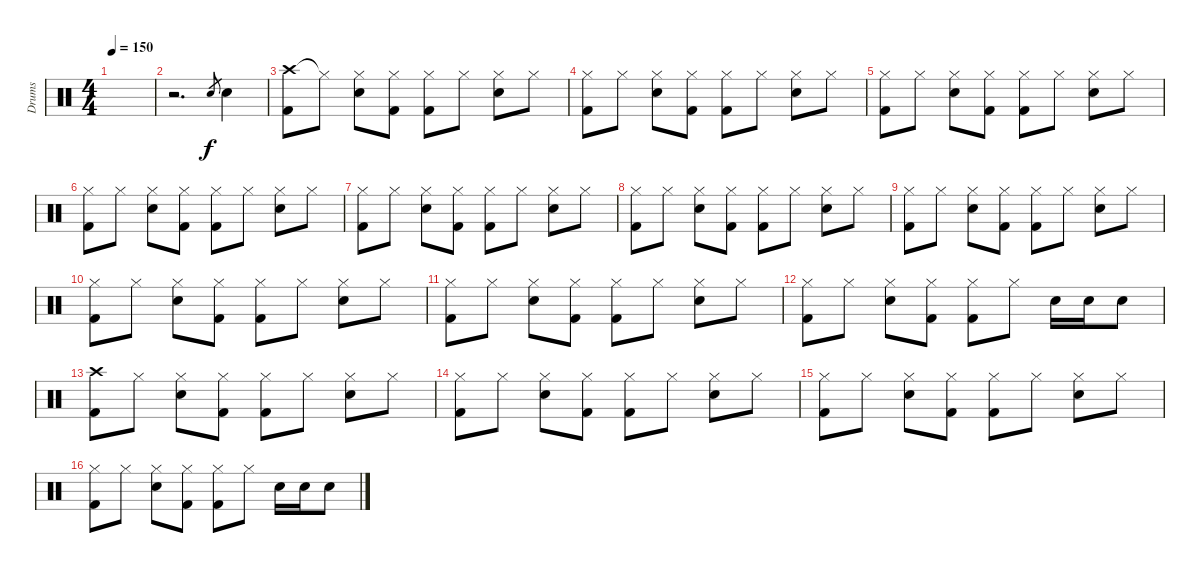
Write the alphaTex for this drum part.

\track ("Drums" "Drums") {instrument percussion}
\staff {score}
\articulation defaults
\ts (4 4)
\tempo 150
\clef neutral
\ks c
|
r.2{d} "Snare (hit) 2"{h}.8{gr} "Snare (hit) 2".4 |
("Crash high (hit)" "Kick (hit) 2").8 "Hi-Hat (closed)"{t}.8 ("Hi-Hat (closed)" "Snare (hit) 2").8 ("Hi-Hat (closed)" "Kick (hit) 2").8 ("Hi-Hat (closed)" "Kick (hit) 2").8 "Hi-Hat (closed)".8 ("Hi-Hat (closed)" "Snare (hit) 2").8 "Hi-Hat (closed)".8 |
("Hi-Hat (closed)" "Kick (hit) 2").8 "Hi-Hat (closed)".8 ("Hi-Hat (closed)" "Snare (hit) 2").8 ("Hi-Hat (closed)" "Kick (hit) 2").8 ("Hi-Hat (closed)" "Kick (hit) 2").8 "Hi-Hat (closed)".8 ("Hi-Hat (closed)" "Snare (hit) 2").8 "Hi-Hat (closed)".8 |
("Hi-Hat (closed)" "Kick (hit) 2").8 "Hi-Hat (closed)".8 ("Hi-Hat (closed)" "Snare (hit) 2").8 ("Hi-Hat (closed)" "Kick (hit) 2").8 ("Hi-Hat (closed)" "Kick (hit) 2").8 "Hi-Hat (closed)".8 ("Hi-Hat (closed)" "Snare (hit) 2").8 "Hi-Hat (closed)".8 |
("Hi-Hat (closed)" "Kick (hit) 2").8 "Hi-Hat (closed)".8 ("Hi-Hat (closed)" "Snare (hit) 2").8 ("Hi-Hat (closed)" "Kick (hit) 2").8 ("Hi-Hat (closed)" "Kick (hit) 2").8 "Hi-Hat (closed)".8 ("Hi-Hat (closed)" "Snare (hit) 2").8 "Hi-Hat (closed)".8 |
("Hi-Hat (closed)" "Kick (hit) 2").8 "Hi-Hat (closed)".8 ("Hi-Hat (closed)" "Snare (hit) 2").8 ("Hi-Hat (closed)" "Kick (hit) 2").8 ("Hi-Hat (closed)" "Kick (hit) 2").8 "Hi-Hat (closed)".8 ("Hi-Hat (closed)" "Snare (hit) 2").8 "Hi-Hat (closed)".8 |
("Hi-Hat (closed)" "Kick (hit) 2").8 "Hi-Hat (closed)".8 ("Hi-Hat (closed)" "Snare (hit) 2").8 ("Hi-Hat (closed)" "Kick (hit) 2").8 ("Hi-Hat (closed)" "Kick (hit) 2").8 "Hi-Hat (closed)".8 ("Hi-Hat (closed)" "Snare (hit) 2").8 "Hi-Hat (closed)".8 |
("Hi-Hat (closed)" "Kick (hit) 2").8 "Hi-Hat (closed)".8 ("Hi-Hat (closed)" "Snare (hit) 2").8 ("Hi-Hat (closed)" "Kick (hit) 2").8 ("Hi-Hat (closed)" "Kick (hit) 2").8 "Hi-Hat (closed)".8 ("Hi-Hat (closed)" "Snare (hit) 2").8 "Hi-Hat (closed)".8 |
("Hi-Hat (closed)" "Kick (hit) 2").8 "Hi-Hat (closed)".8 ("Hi-Hat (closed)" "Snare (hit) 2").8 ("Hi-Hat (closed)" "Kick (hit) 2").8 ("Hi-Hat (closed)" "Kick (hit) 2").8 "Hi-Hat (closed)".8 ("Hi-Hat (closed)" "Snare (hit) 2").8 "Hi-Hat (closed)".8 |
("Hi-Hat (closed)" "Kick (hit) 2").8 "Hi-Hat (closed)".8 ("Hi-Hat (closed)" "Snare (hit) 2").8 ("Hi-Hat (closed)" "Kick (hit) 2").8 ("Hi-Hat (closed)" "Kick (hit) 2").8 "Hi-Hat (closed)".8 ("Hi-Hat (closed)" "Snare (hit) 2").8 "Hi-Hat (closed)".8 |
("Hi-Hat (closed)" "Kick (hit) 2").8 "Hi-Hat (closed)".8 ("Hi-Hat (closed)" "Snare (hit) 2").8 ("Hi-Hat (closed)" "Kick (hit) 2").8 ("Hi-Hat (closed)" "Kick (hit) 2").8 "Hi-Hat (closed)".8 "Snare (hit) 2".16 "Snare (hit) 2".16 "Snare (hit) 2".8 |
("Crash high (hit)" "Kick (hit) 2").8 "Hi-Hat (closed)".8 ("Hi-Hat (closed)" "Snare (hit) 2").8 ("Hi-Hat (closed)" "Kick (hit) 2").8 ("Hi-Hat (closed)" "Kick (hit) 2").8 "Hi-Hat (closed)".8 ("Hi-Hat (closed)" "Snare (hit) 2").8 "Hi-Hat (closed)".8 |
("Hi-Hat (closed)" "Kick (hit) 2").8 "Hi-Hat (closed)".8 ("Hi-Hat (closed)" "Snare (hit) 2").8 ("Hi-Hat (closed)" "Kick (hit) 2").8 ("Hi-Hat (closed)" "Kick (hit) 2").8 "Hi-Hat (closed)".8 ("Hi-Hat (closed)" "Snare (hit) 2").8 "Hi-Hat (closed)".8 |
("Hi-Hat (closed)" "Kick (hit) 2").8 "Hi-Hat (closed)".8 ("Hi-Hat (closed)" "Snare (hit) 2").8 ("Hi-Hat (closed)" "Kick (hit) 2").8 ("Hi-Hat (closed)" "Kick (hit) 2").8 "Hi-Hat (closed)".8 ("Hi-Hat (closed)" "Snare (hit) 2").8 "Hi-Hat (closed)".8 |
("Hi-Hat (closed)" "Kick (hit) 2").8 "Hi-Hat (closed)".8 ("Hi-Hat (closed)" "Snare (hit) 2").8 ("Hi-Hat (closed)" "Kick (hit) 2").8 ("Hi-Hat (closed)" "Kick (hit) 2").8 "Hi-Hat (closed)".8 "Snare (hit) 2".16 "Snare (hit) 2".16 "Snare (hit) 2".8
